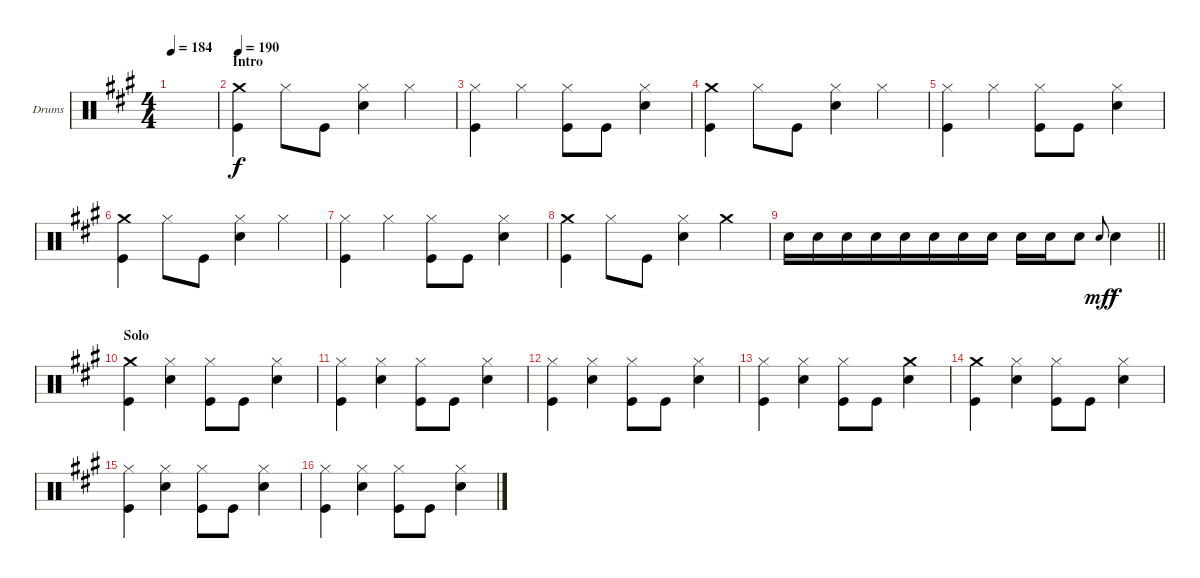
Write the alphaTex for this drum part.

\bracketExtendMode groupsimilarinstruments
\firstSystemTrackNameOrientation horizontal
\otherSystemsTrackNameOrientation horizontal
\track ("Drums" "Drums") {instrument percussion}
\staff {score}
\articulation defaults
\ts (4 4)
\beaming (8 4 4)
\tempo 184
\clef neutral
\ks a
|
\section ("" "Intro")
\tempo 190
("Crash medium (hit)" "Kick (hit)").4 "Hi-Hat (closed)".8 "Kick (hit)".8 ("Snare (hit) 2" "Hi-Hat (closed)").4 "Hi-Hat (closed)".4 |
("Kick (hit)" "Hi-Hat (closed)").4 "Hi-Hat (closed)".4 ("Kick (hit)" "Hi-Hat (closed)").8 "Kick (hit)".8 ("Snare (hit) 2" "Hi-Hat (closed)").4 |
("Crash medium (hit)" "Kick (hit)").4 "Hi-Hat (closed)".8 "Kick (hit)".8 ("Snare (hit) 2" "Hi-Hat (closed)").4 "Hi-Hat (closed)".4 |
("Kick (hit)" "Hi-Hat (closed)").4 "Hi-Hat (closed)".4 ("Kick (hit)" "Hi-Hat (closed)").8 "Kick (hit)".8 ("Snare (hit) 2" "Hi-Hat (closed)").4 |
("Crash medium (hit)" "Kick (hit)").4 "Hi-Hat (closed)".8 "Kick (hit)".8 ("Snare (hit) 2" "Hi-Hat (closed)").4 "Hi-Hat (closed)".4 |
("Kick (hit)" "Hi-Hat (closed)").4 "Hi-Hat (closed)".4 ("Kick (hit)" "Hi-Hat (closed)").8 "Kick (hit)".8 ("Snare (hit) 2" "Hi-Hat (closed)").4 |
("Crash medium (hit)" "Kick (hit)").4 "Hi-Hat (closed)".8 "Kick (hit)".8 ("Snare (hit) 2" "Hi-Hat (closed)").4 "Crash medium (hit)".4 |
\barLineRight lightlight "Snare (hit) 2".16 "Snare (hit) 2".16 "Snare (hit) 2".16 "Snare (hit) 2".16 "Snare (hit) 2".16 "Snare (hit) 2".16 "Snare (hit) 2".16 "Snare (hit) 2".16 "Snare (hit) 2".16 "Snare (hit) 2".16 "Snare (hit) 2".8 "Snare (hit) 2".8{gr onbeat dy mf} "Snare (hit) 2".4{dy f}
|
\section ("" "Solo")
("Crash medium (hit)" "Kick (hit)").4 ("Snare (hit) 2" "Hi-Hat (closed)").4 ("Kick (hit)" "Hi-Hat (closed)").8 "Kick (hit)".8 ("Snare (hit) 2" "Hi-Hat (closed)").4 |
("Kick (hit)" "Hi-Hat (closed)").4 ("Snare (hit) 2" "Hi-Hat (closed)").4 ("Kick (hit)" "Hi-Hat (closed)").8 "Kick (hit)".8 ("Snare (hit) 2" "Hi-Hat (closed)").4 |
("Kick (hit)" "Hi-Hat (closed)").4 ("Snare (hit) 2" "Hi-Hat (closed)").4 ("Kick (hit)" "Hi-Hat (closed)").8 "Kick (hit)".8 ("Snare (hit) 2" "Hi-Hat (closed)").4 |
("Kick (hit)" "Hi-Hat (closed)").4 ("Snare (hit) 2" "Hi-Hat (closed)").4 ("Kick (hit)" "Hi-Hat (closed)").8 "Kick (hit)".8 ("Crash medium (hit)" "Snare (hit) 2").4 |
("Crash medium (hit)" "Kick (hit)").4 ("Snare (hit) 2" "Hi-Hat (closed)").4 ("Kick (hit)" "Hi-Hat (closed)").8 "Kick (hit)".8 ("Snare (hit) 2" "Hi-Hat (closed)").4 |
("Kick (hit)" "Hi-Hat (closed)").4 ("Snare (hit) 2" "Hi-Hat (closed)").4 ("Kick (hit)" "Hi-Hat (closed)").8 "Kick (hit)".8 ("Snare (hit) 2" "Hi-Hat (closed)").4 |
("Kick (hit)" "Hi-Hat (closed)").4 ("Snare (hit) 2" "Hi-Hat (closed)").4 ("Kick (hit)" "Hi-Hat (closed)").8 "Kick (hit)".8 ("Snare (hit) 2" "Hi-Hat (closed)").4
